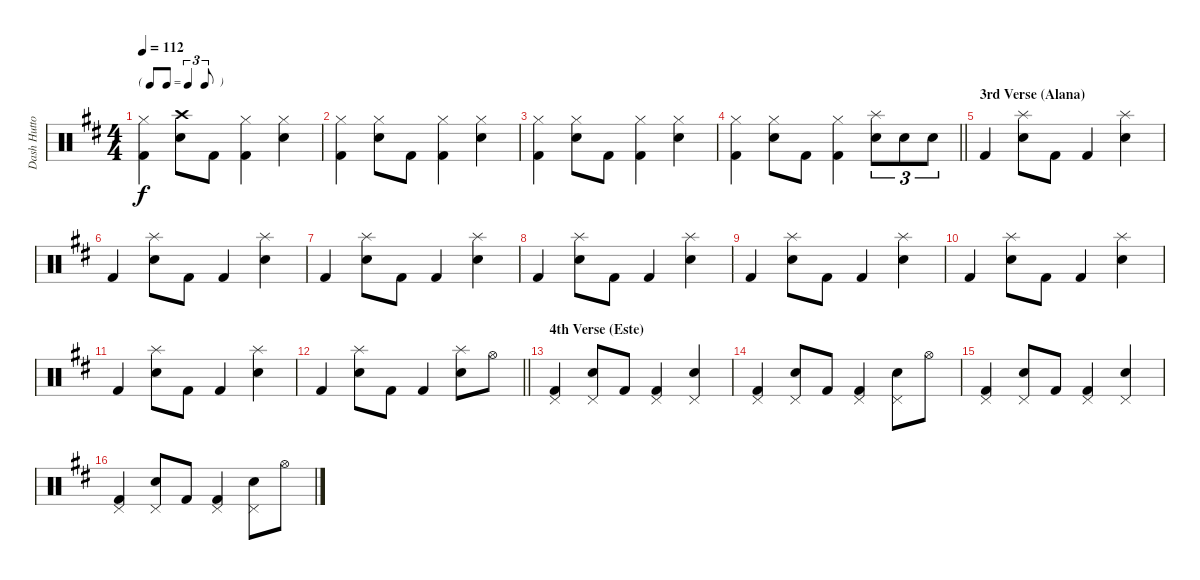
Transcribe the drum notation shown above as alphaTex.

\track ("Dash Hutton" "Dash Hutto") {instrument percussion}
\staff {score}
\articulation defaults
\ts (4 4)
\tf triplet8th
\tempo 112
\clef neutral
\ks d
("Hi-Hat (closed)" "Kick (hit) 2").4{dy f} ("Crash high (hit)" "Snare (hit) 2").8 "Kick (hit) 2".8 ("Hi-Hat (closed)" "Kick (hit) 2").4 ("Hi-Hat (closed)" "Snare (hit) 2").4 |
("Hi-Hat (closed)" "Kick (hit) 2").4 ("Hi-Hat (closed)" "Snare (hit) 2").8 "Kick (hit) 2".8 ("Hi-Hat (closed)" "Kick (hit) 2").4 ("Hi-Hat (closed)" "Snare (hit) 2").4 |
("Hi-Hat (closed)" "Kick (hit) 2").4 ("Hi-Hat (closed)" "Snare (hit) 2").8 "Kick (hit) 2".8 ("Hi-Hat (closed)" "Kick (hit) 2").4 ("Hi-Hat (closed)" "Snare (hit) 2").4 |
\barLineRight lightlight
("Hi-Hat (closed)" "Kick (hit) 2").4 ("Hi-Hat (closed)" "Snare (hit) 2").8 "Kick (hit) 2".8 ("Hi-Hat (closed)" "Kick (hit) 2").4 ("Splash (hit)" "Snare (hit) 2").8{tu (3 2)} "Snare (hit) 2".8{tu (3 2)} "Snare (hit) 2".8{tu (3 2)} |
\section ("" "3rd Verse (Alana)")
"Kick (hit) 2".4 ("Splash (hit)" "Snare (hit) 2").8 "Kick (hit) 2".8 "Kick (hit) 2".4 ("Splash (hit)" "Snare (hit) 2").4 |
"Kick (hit) 2".4 ("Splash (hit)" "Snare (hit) 2").8 "Kick (hit) 2".8 "Kick (hit) 2".4 ("Splash (hit)" "Snare (hit) 2").4 |
"Kick (hit) 2".4 ("Splash (hit)" "Snare (hit) 2").8 "Kick (hit) 2".8 "Kick (hit) 2".4 ("Splash (hit)" "Snare (hit) 2").4 |
"Kick (hit) 2".4 ("Splash (hit)" "Snare (hit) 2").8 "Kick (hit) 2".8 "Kick (hit) 2".4 ("Splash (hit)" "Snare (hit) 2").4 |
"Kick (hit) 2".4 ("Splash (hit)" "Snare (hit) 2").8 "Kick (hit) 2".8 "Kick (hit) 2".4 ("Splash (hit)" "Snare (hit) 2").4 |
"Kick (hit) 2".4 ("Splash (hit)" "Snare (hit) 2").8 "Kick (hit) 2".8 "Kick (hit) 2".4 ("Splash (hit)" "Snare (hit) 2").4 |
"Kick (hit) 2".4 ("Splash (hit)" "Snare (hit) 2").8 "Kick (hit) 2".8 "Kick (hit) 2".4 ("Splash (hit)" "Snare (hit) 2").4 |
\barLineRight lightlight "Kick (hit) 2".4
("Splash (hit)" "Snare (hit) 2").8 "Kick (hit) 2".8 "Kick (hit) 2".4 ("Splash (hit)" "Snare (hit) 2").8 "Hi-Hat (open)".8 |
\section ("" "4th Verse (Este)")
("Pedal Hi-Hat (hit)" "Kick (hit) 2").4 ("Pedal Hi-Hat (hit)" "Snare (hit) 2").8 "Kick (hit) 2".8 ("Pedal Hi-Hat (hit)" "Kick (hit) 2").4 ("Pedal Hi-Hat (hit)" "Snare (hit) 2").4 |
("Pedal Hi-Hat (hit)" "Kick (hit) 2").4 ("Pedal Hi-Hat (hit)" "Snare (hit) 2").8 "Kick (hit) 2".8 ("Pedal Hi-Hat (hit)" "Kick (hit) 2").4 ("Pedal Hi-Hat (hit)" "Snare (hit) 2").8 "Hi-Hat (open)".8 |
("Pedal Hi-Hat (hit)" "Kick (hit) 2").4 ("Pedal Hi-Hat (hit)" "Snare (hit) 2").8 "Kick (hit) 2".8 ("Pedal Hi-Hat (hit)" "Kick (hit) 2").4 ("Pedal Hi-Hat (hit)" "Snare (hit) 2").4 |
("Pedal Hi-Hat (hit)" "Kick (hit) 2").4 ("Pedal Hi-Hat (hit)" "Snare (hit) 2").8 "Kick (hit) 2".8 ("Pedal Hi-Hat (hit)" "Kick (hit) 2").4 ("Pedal Hi-Hat (hit)" "Snare (hit) 2").8 "Hi-Hat (open)".8
